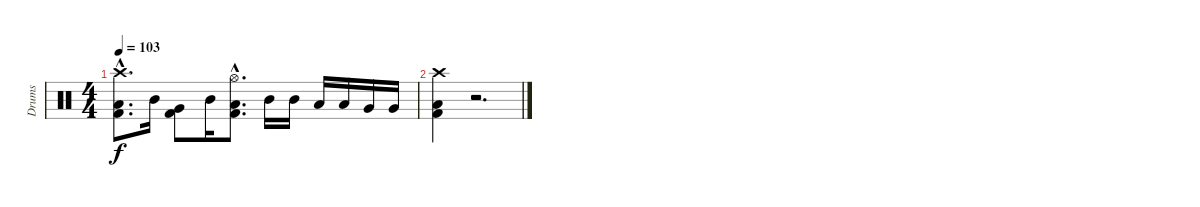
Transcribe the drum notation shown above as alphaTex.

\track ("Drums" "Drums") {instrument percussion}
\staff {score}
\articulation defaults
\ts (4 4)
\tempo 103
\clef neutral
\ks c
("Crash high (hit)"{hac} "Low Floor Tom (hit)"{hac} "Kick (hit) 2"{hac}).8{d dy f} "Mid Tom (hit)".16 ("Very Low Tom (hit)" "Kick (hit) 2").8 "Mid Tom (hit)".16 ("Hi-Hat (open)"{hac} "Low Floor Tom (hit)"{hac} "Kick (hit) 2"{hac}).8{d} "Mid Tom (hit)".16 "Mid Tom (hit)".16 "Low Tom (hit)".16 "Low Tom (hit)".16 "Very Low Tom (hit)".16 "Very Low Tom (hit)".16 |
("Crash high (hit)" "Low Floor Tom (hit)" "Kick (hit) 2").4 r.2{d}
